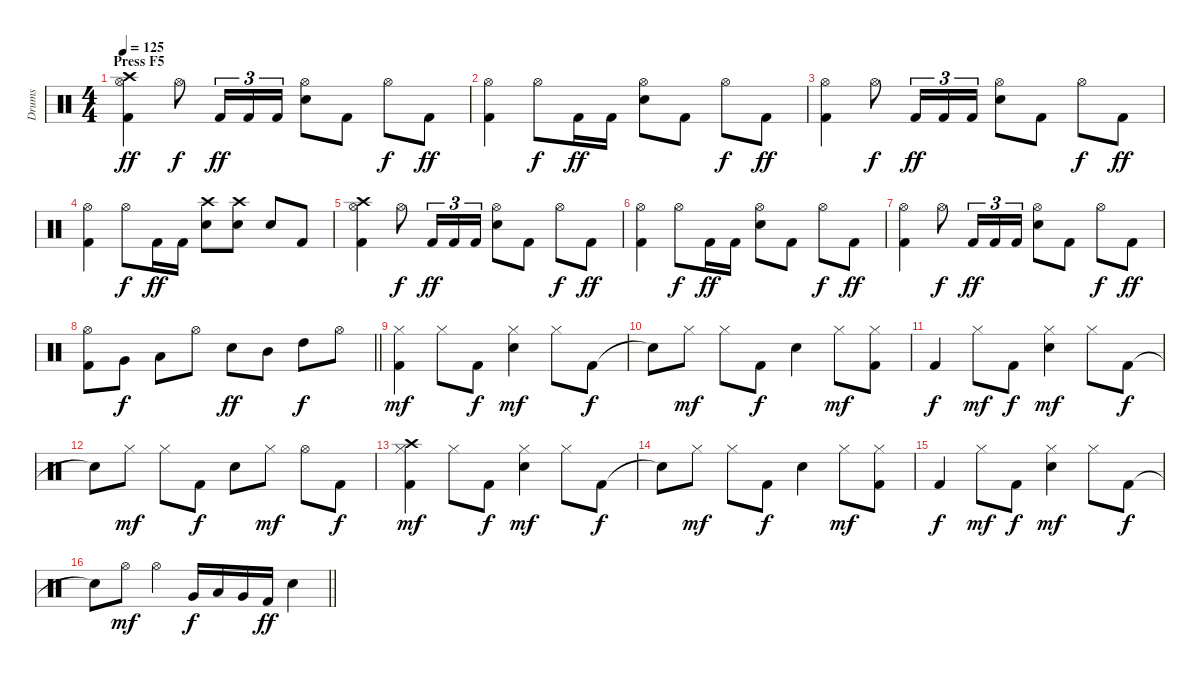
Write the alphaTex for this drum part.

\track ("Drums" "Drums") {instrument percussion}
\staff {score}
\articulation defaults
\ts (4 4)
\section ("" "Press F5")
\tempo 125
\clef neutral
\ks c
("Crash high (hit)" "Hi-Hat (open)" "Kick (hit) 2").4{dy ff} "Hi-Hat (open)".8{dy f} "Kick (hit) 2".16{tu (3 2) dy ff} "Kick (hit) 2".16{tu (3 2)} "Kick (hit) 2".16{tu (3 2)} ("Hi-Hat (open)" "Snare (hit) 2").8 "Kick (hit) 2".8 "Hi-Hat (open)".8{dy f} "Kick (hit) 2".8{dy ff} |
("Hi-Hat (open)" "Kick (hit) 2").4 "Hi-Hat (open)".8{dy f} "Kick (hit) 2".16{dy ff} "Kick (hit) 2".16 ("Hi-Hat (open)" "Snare (hit) 2").8 "Kick (hit) 2".8 "Hi-Hat (open)".8{dy f} "Kick (hit) 2".8{dy ff} |
("Hi-Hat (open)" "Kick (hit) 2").4 "Hi-Hat (open)".8{dy f} "Kick (hit) 2".16{tu (3 2) dy ff} "Kick (hit) 2".16{tu (3 2)} "Kick (hit) 2".16{tu (3 2)} ("Hi-Hat (open)" "Snare (hit) 2").8 "Kick (hit) 2".8 "Hi-Hat (open)".8{dy f} "Kick (hit) 2".8{dy ff} |
("Hi-Hat (open)" "Kick (hit) 2").4 "Hi-Hat (open)".8{dy f} "Kick (hit) 2".16{dy ff} "Kick (hit) 2".16 ("Crash high (hit)" "Snare (hit) 2").8 ("Crash high (hit)" "Snare (hit) 2").8 "Snare (hit) 2".8 "Kick (hit) 2".8 |
("Crash high (hit)" "Hi-Hat (open)" "Kick (hit) 2").4 "Hi-Hat (open)".8{dy f} "Kick (hit) 2".16{tu (3 2) dy ff} "Kick (hit) 2".16{tu (3 2)} "Kick (hit) 2".16{tu (3 2)} ("Hi-Hat (open)" "Snare (hit) 2").8 "Kick (hit) 2".8 "Hi-Hat (open)".8{dy f} "Kick (hit) 2".8{dy ff} |
("Hi-Hat (open)" "Kick (hit) 2").4 "Hi-Hat (open)".8{dy f} "Kick (hit) 2".16{dy ff} "Kick (hit) 2".16 ("Hi-Hat (open)" "Snare (hit) 2").8 "Kick (hit) 2".8 "Hi-Hat (open)".8{dy f} "Kick (hit) 2".8{dy ff} |
("Hi-Hat (open)" "Kick (hit) 2").4 "Hi-Hat (open)".8{dy f} "Kick (hit) 2".16{tu (3 2) dy ff} "Kick (hit) 2".16{tu (3 2)} "Kick (hit) 2".16{tu (3 2)} ("Hi-Hat (open)" "Snare (hit) 2").8 "Kick (hit) 2".8 "Hi-Hat (open)".8{dy f} "Kick (hit) 2".8{dy ff} |
\barLineRight lightlight
("Hi-Hat (open)" "Kick (hit) 2").8 "Very Low Tom (hit)".8{dy f} "Low Tom (hit)".8 "Hi-Hat (open)".8 "Snare (hit) 2".8{dy ff} "Mid Tom (hit)".8 "High Tom (hit)".8{dy f} "Hi-Hat (open)".8 |
\section ("" "")
("Hi-Hat (closed)" "Kick (hit) 2").4{dy mf} "Hi-Hat (closed)".8 "Kick (hit) 2".8{dy f} ("Hi-Hat (closed)" "Snare (hit) 2").4{dy mf} "Hi-Hat (closed)".8 "Kick (hit) 2".8{dy f} |
"Snare (hit)"{t}.8 "Hi-Hat (closed)".8{dy mf} "Hi-Hat (closed)".8 "Kick (hit) 2".8{dy f} "Snare (hit) 2".4 "Hi-Hat (closed)".8{dy mf} ("Hi-Hat (closed)" "Kick (hit) 2").8 |
"Kick (hit) 2".4{dy f} "Hi-Hat (closed)".8{dy mf} "Kick (hit) 2".8{dy f} ("Hi-Hat (closed)" "Snare (hit) 2").4{dy mf} "Hi-Hat (closed)".8 "Kick (hit) 2".8{dy f} |
"Snare (hit)"{t}.8 "Hi-Hat (closed)".8{dy mf} "Hi-Hat (closed)".8 "Kick (hit) 2".8{dy f} "Snare (hit) 2".8 "Hi-Hat (closed)".8{dy mf} "Hi-Hat (open)".8 "Kick (hit) 2".8{dy f} |
("Crash high (hit)" "Hi-Hat (closed)" "Kick (hit) 2").4{dy mf} "Hi-Hat (closed)".8 "Kick (hit) 2".8{dy f} ("Hi-Hat (closed)" "Snare (hit) 2").4{dy mf} "Hi-Hat (closed)".8 "Kick (hit) 2".8{dy f} |
"Snare (hit)"{t}.8 "Hi-Hat (closed)".8{dy mf} "Hi-Hat (closed)".8 "Kick (hit) 2".8{dy f} "Snare (hit) 2".4 "Hi-Hat (closed)".8{dy mf} ("Hi-Hat (closed)" "Kick (hit) 2").8 |
"Kick (hit) 2".4{dy f} "Hi-Hat (closed)".8{dy mf} "Kick (hit) 2".8{dy f} ("Hi-Hat (closed)" "Snare (hit) 2").4{dy mf} "Hi-Hat (closed)".8 "Kick (hit) 2".8{dy f} |
\barLineRight lightlight "Snare (hit)"{t}.8 "Hi-Hat (open)".8{dy mf} "Hi-Hat (open)".4 "Very Low Tom (hit)".16{dy f} "Low Floor Tom (hit)".16 "Very Low Tom (hit)".16 "Kick (hit) 2".16{dy ff} "Snare (hit) 2".4
